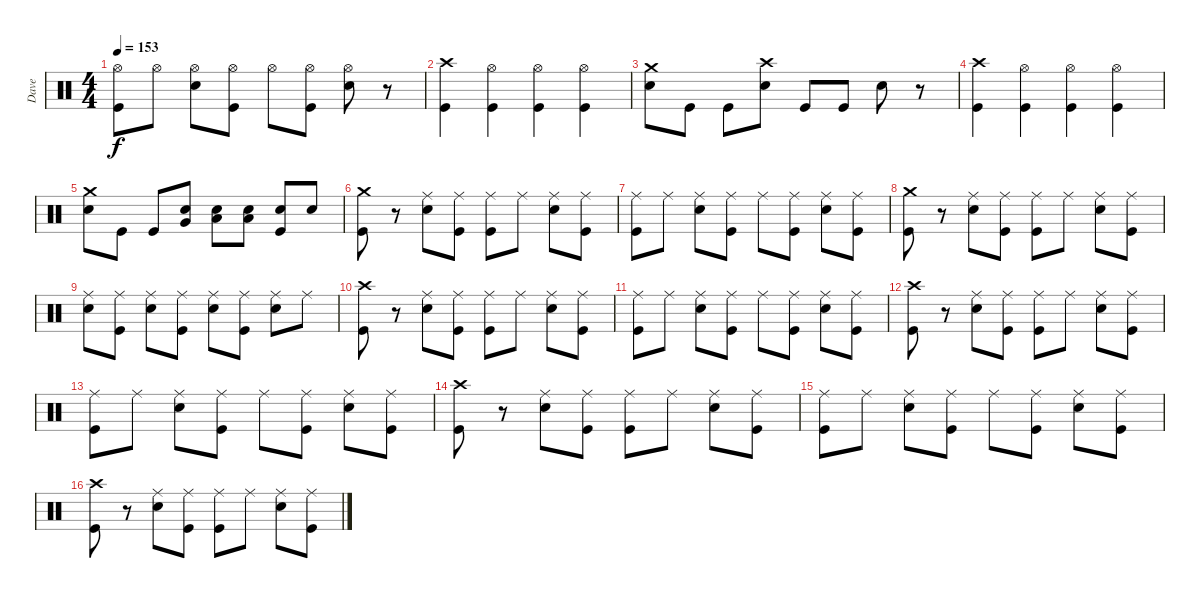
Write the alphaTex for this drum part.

\track ("Dave" "Dave") {solo instrument percussion}
\staff {score}
\articulation defaults
\ts (4 4)
\tempo 153
\clef neutral
\ks c
("Hi-Hat (open)" "Kick (hit)").8{dy f} "Hi-Hat (open)".8 ("Hi-Hat (open)" "Snare (hit) 2").8 ("Hi-Hat (open)" "Kick (hit)").8 "Hi-Hat (open)".8 ("Hi-Hat (open)" "Kick (hit)").8 ("Hi-Hat (open)" "Snare (hit) 2").8 r.8 |
("Crash high (hit)" "Kick (hit)").4 ("Hi-Hat (open)" "Kick (hit)").4 ("Hi-Hat (open)" "Kick (hit)").4 ("Hi-Hat (open)" "Kick (hit)").4 |
("Crash medium (hit)" "Snare (hit) 2").8 "Kick (hit)".8 "Kick (hit)".8 ("Crash high (hit)" "Snare (hit) 2").8 "Kick (hit)".8 "Kick (hit)".8 "Snare (hit) 2".8 r.8 |
("Crash high (hit)" "Kick (hit)").4 ("Hi-Hat (open)" "Kick (hit)").4 ("Hi-Hat (open)" "Kick (hit)").4 ("Hi-Hat (open)" "Kick (hit)").4 |
("Crash medium (hit)" "Snare (hit) 2").8 "Kick (hit)".8 "Kick (hit)".8 ("Snare (hit) 2" "Very Low Tom (hit)").8 ("Snare (hit) 2" "Low Tom (hit)").8 ("Snare (hit) 2" "Low Tom (hit)").8 ("Snare (hit) 2" "Kick (hit)").8 "Snare (hit) 2".8 |
("Crash medium (hit)" "Kick (hit)").8 r.8 ("Ride (middle)" "Snare (hit) 2").8 ("Ride (middle)" "Kick (hit)").8 ("Ride (middle)" "Kick (hit)").8 "Ride (middle)".8 ("Ride (middle)" "Snare (hit) 2").8 ("Ride (middle)" "Kick (hit)").8 |
("Ride (middle)" "Kick (hit)").8 "Ride (middle)".8 ("Ride (middle)" "Snare (hit) 2").8 ("Ride (middle)" "Kick (hit)").8 "Ride (middle)".8 ("Ride (middle)" "Kick (hit)").8 ("Ride (middle)" "Snare (hit) 2").8 ("Ride (middle)" "Kick (hit)").8 |
("Crash medium (hit)" "Kick (hit)").8 r.8 ("Ride (middle)" "Snare (hit) 2").8 ("Ride (middle)" "Kick (hit)").8 ("Ride (middle)" "Kick (hit)").8 "Ride (middle)".8 ("Ride (middle)" "Snare (hit) 2").8 ("Ride (middle)" "Kick (hit)").8 |
("Ride (middle)" "Snare (hit) 2").8 ("Ride (middle)" "Kick (hit)").8 ("Ride (middle)" "Snare (hit) 2").8 ("Ride (middle)" "Kick (hit)").8 ("Ride (middle)" "Snare (hit) 2").8 ("Ride (middle)" "Kick (hit)").8 ("Ride (middle)" "Snare (hit) 2").8 "Ride (middle)".8 |
("Crash high (hit)" "Kick (hit)").8 r.8 ("Ride (middle)" "Snare (hit) 2").8 ("Ride (middle)" "Kick (hit)").8 ("Ride (middle)" "Kick (hit)").8 "Ride (middle)".8 ("Ride (middle)" "Snare (hit) 2").8 ("Ride (middle)" "Kick (hit)").8 |
("Ride (middle)" "Kick (hit)").8 "Ride (middle)".8 ("Ride (middle)" "Snare (hit) 2").8 ("Ride (middle)" "Kick (hit)").8 "Ride (middle)".8 ("Ride (middle)" "Kick (hit)").8 ("Ride (middle)" "Snare (hit) 2").8 ("Ride (middle)" "Kick (hit)").8 |
("Crash high (hit)" "Kick (hit)").8 r.8 ("Ride (middle)" "Snare (hit) 2").8 ("Ride (middle)" "Kick (hit)").8 ("Ride (middle)" "Kick (hit)").8 "Ride (middle)".8 ("Ride (middle)" "Snare (hit) 2").8 ("Ride (middle)" "Kick (hit)").8 |
("Ride (middle)" "Kick (hit)").8 "Ride (middle)".8 ("Ride (middle)" "Snare (hit) 2").8 ("Ride (middle)" "Kick (hit)").8 "Ride (middle)".8 ("Ride (middle)" "Kick (hit)").8 ("Ride (middle)" "Snare (hit) 2").8 ("Ride (middle)" "Kick (hit)").8 |
("Crash high (hit)" "Kick (hit)").8 r.8 ("Ride (middle)" "Snare (hit) 2").8 ("Ride (middle)" "Kick (hit)").8 ("Ride (middle)" "Kick (hit)").8 "Ride (middle)".8 ("Ride (middle)" "Snare (hit) 2").8 ("Ride (middle)" "Kick (hit)").8 |
("Ride (middle)" "Kick (hit)").8 "Ride (middle)".8 ("Ride (middle)" "Snare (hit) 2").8 ("Ride (middle)" "Kick (hit)").8 "Ride (middle)".8 ("Ride (middle)" "Kick (hit)").8 ("Ride (middle)" "Snare (hit) 2").8 ("Ride (middle)" "Kick (hit)").8 |
("Crash high (hit)" "Kick (hit)").8 r.8 ("Ride (middle)" "Snare (hit) 2").8 ("Ride (middle)" "Kick (hit)").8 ("Ride (middle)" "Kick (hit)").8 "Ride (middle)".8 ("Ride (middle)" "Snare (hit) 2").8 ("Ride (middle)" "Kick (hit)").8
